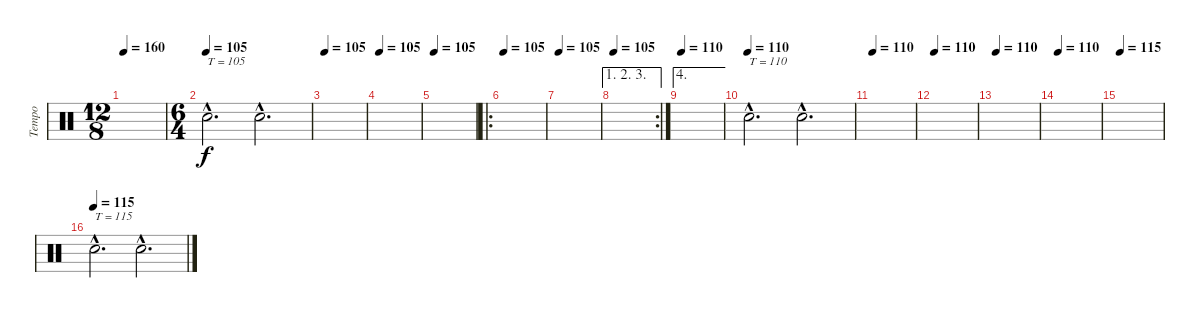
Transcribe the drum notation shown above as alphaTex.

\track ("Tempo" "Tempo") {instrument percussion}
\staff {score}
\articulation defaults
\ts (12 8)
\tempo 160
\clef neutral
\ks c
|
\ts (6 4)
\tempo (105)
"Snare (hit)"{hac x}.2{d txt "T = 105"} "Snare (hit)"{hac x}.2{d} |
\tempo 105
|
\tempo 105
|
\tempo 105
|
\ro
\tempo 105
|
\tempo 105
|
\ae (1 2 3)
\rc 2
\tempo 105
|
\ae 4
\tempo 110
|
\tempo (110)
"Snare (hit)"{hac x}.2{d txt "T = 110"} "Snare (hit)"{hac x}.2{d} |
\tempo 110
|
\tempo 110
|
\tempo 110
|
\tempo 110
|
\tempo 115
|
\tempo (115)
"Snare (hit)"{hac x}.2{d txt "T = 115"} "Snare (hit)"{hac x}.2{d}
